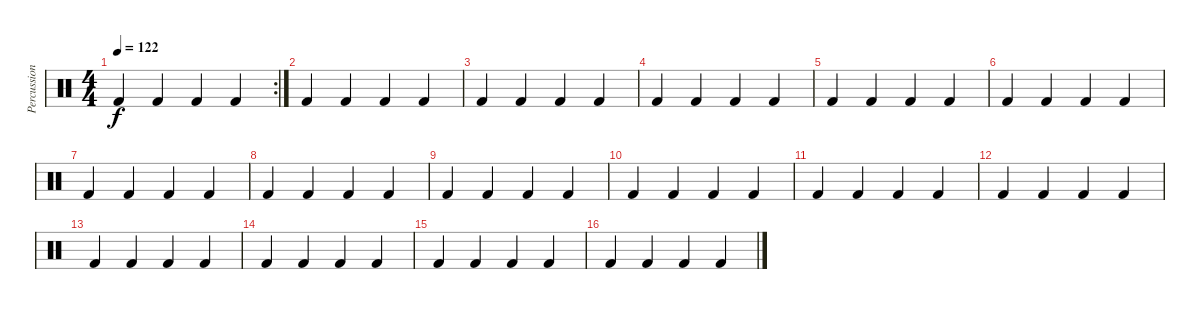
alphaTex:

\track ("Percussion" "Percussion") {instrument percussion}
\staff {score}
\articulation defaults
\rc 2
\ts (4 4)
\tempo 122
\clef neutral
\ks c "Kick (hit) 2".4{dy f} "Kick (hit) 2".4 "Kick (hit) 2".4 "Kick (hit) 2".4
|
"Kick (hit) 2".4 "Kick (hit) 2".4 "Kick (hit) 2".4 "Kick (hit) 2".4 |
"Kick (hit) 2".4 "Kick (hit) 2".4 "Kick (hit) 2".4 "Kick (hit) 2".4 |
"Kick (hit) 2".4 "Kick (hit) 2".4 "Kick (hit) 2".4 "Kick (hit) 2".4 |
"Kick (hit) 2".4 "Kick (hit) 2".4 "Kick (hit) 2".4 "Kick (hit) 2".4 |
"Kick (hit) 2".4 "Kick (hit) 2".4 "Kick (hit) 2".4 "Kick (hit) 2".4 |
"Kick (hit) 2".4 "Kick (hit) 2".4 "Kick (hit) 2".4 "Kick (hit) 2".4 |
"Kick (hit) 2".4 "Kick (hit) 2".4 "Kick (hit) 2".4 "Kick (hit) 2".4 |
"Kick (hit) 2".4 "Kick (hit) 2".4 "Kick (hit) 2".4 "Kick (hit) 2".4 |
"Kick (hit) 2".4 "Kick (hit) 2".4 "Kick (hit) 2".4 "Kick (hit) 2".4 |
"Kick (hit) 2".4 "Kick (hit) 2".4 "Kick (hit) 2".4 "Kick (hit) 2".4 |
"Kick (hit) 2".4 "Kick (hit) 2".4 "Kick (hit) 2".4 "Kick (hit) 2".4 |
"Kick (hit) 2".4 "Kick (hit) 2".4 "Kick (hit) 2".4 "Kick (hit) 2".4 |
"Kick (hit) 2".4 "Kick (hit) 2".4 "Kick (hit) 2".4 "Kick (hit) 2".4 |
"Kick (hit) 2".4 "Kick (hit) 2".4 "Kick (hit) 2".4 "Kick (hit) 2".4 |
"Kick (hit) 2".4 "Kick (hit) 2".4 "Kick (hit) 2".4 "Kick (hit) 2".4
